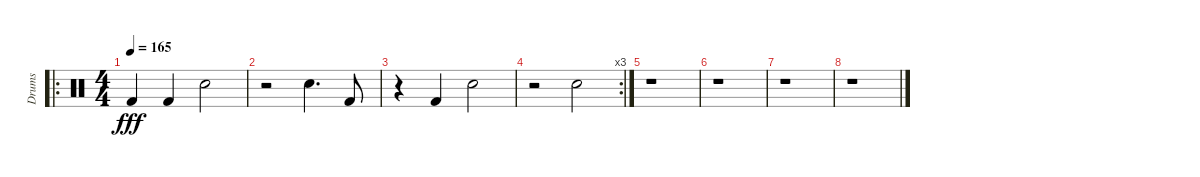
\track ("Drums" "Drums") {instrument percussion}
\staff {score}
\articulation defaults
\ro
\ts (4 4)
\tempo 165
\clef neutral
\ks c "Kick (hit) 2".4{dy fff} "Kick (hit) 2".4 "Hand Clap (hit)".2
|
r.2 "Hand Clap (hit)".4{d} "Kick (hit) 2".8 |
r.4 "Kick (hit) 2".4 "Hand Clap (hit)".2 |
\rc 3
r.2 "Hand Clap (hit)".2 |
r.1 |
r.1 |
r.1 |
r.1
